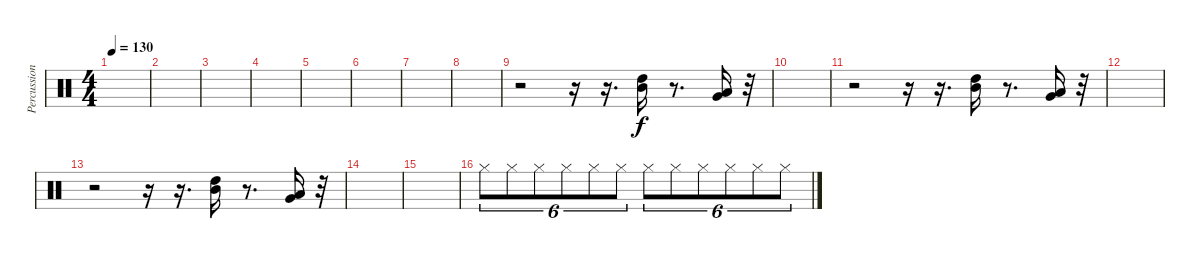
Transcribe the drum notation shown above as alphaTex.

\track ("Percussion" "Percussion") {instrument percussion bank 177}
\staff {score}
\articulation defaults
\ts (4 4)
\tempo 130
\clef neutral
\ks c
|
|
|
|
|
|
|
|
r.2 r.16 r.16{d} ("High Tom (hit)" "Mid Tom (hit)").16 r.8{d} ("Low Tom (hit)" "Very Low Tom (hit)").16 r.32 |
|
r.2 r.16 r.16{d} ("High Tom (hit)" "Mid Tom (hit)").16 r.8{d} ("Low Tom (hit)" "Very Low Tom (hit)").16 r.32 |
|
r.2 r.16 r.16{d} ("High Tom (hit)" "Mid Tom (hit)").16 r.8{d} ("Low Tom (hit)" "Very Low Tom (hit)").16 r.32 |
|
|
"Hi-Hat (closed)".8{tu (6 4)} "Hi-Hat (closed)".8{tu (6 4)} "Hi-Hat (closed)".8{tu (6 4)} "Hi-Hat (closed)".8{tu (6 4)} "Hi-Hat (closed)".8{tu (6 4)} "Hi-Hat (closed)".8{tu (6 4)} "Hi-Hat (closed)".8{tu (6 4)} "Hi-Hat (closed)".8{tu (6 4)} "Hi-Hat (closed)".8{tu (6 4)} "Hi-Hat (closed)".8{tu (6 4)} "Hi-Hat (closed)".8{tu (6 4)} "Hi-Hat (closed)".8{tu (6 4)}
